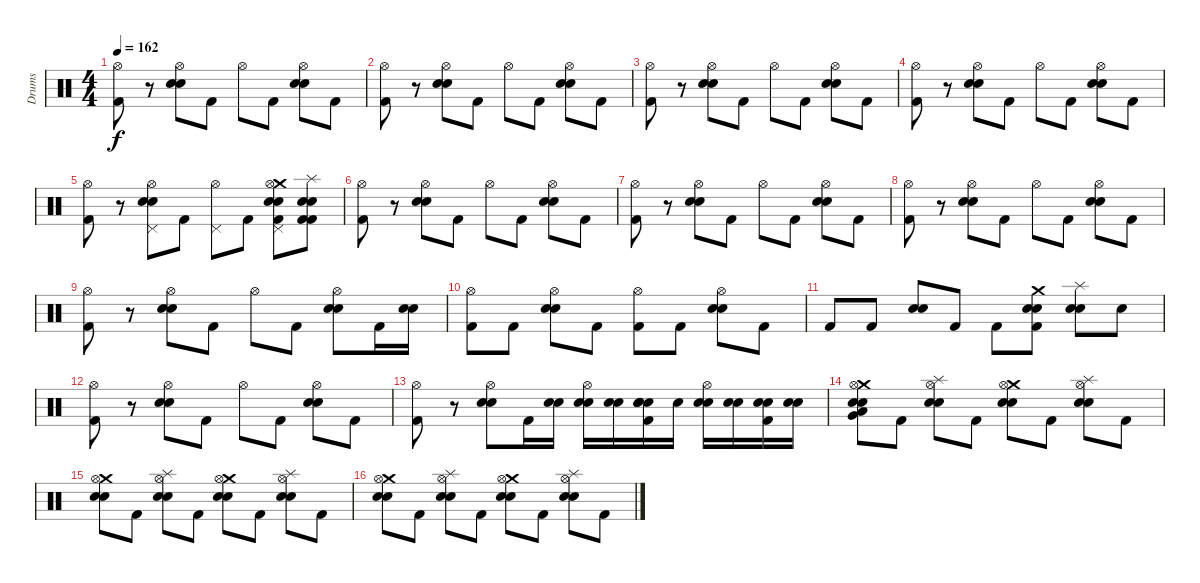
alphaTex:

\track ("Drums" "Drums") {instrument percussion}
\staff {score}
\articulation defaults
\ts (4 4)
\tempo 162
\clef neutral
\ks c
("Hi-Hat (open)" "Kick (hit) 2").8{dy f} r.8 ("Hi-Hat (open)" "Electric Snare (hit)" "Snare (hit) 2").8 "Kick (hit) 2".8 "Hi-Hat (open)".8 "Kick (hit) 2".8 ("Hi-Hat (open)" "Electric Snare (hit)" "Snare (hit) 2").8 "Kick (hit) 2".8 |
("Hi-Hat (open)" "Kick (hit) 2").8 r.8 ("Hi-Hat (open)" "Electric Snare (hit)" "Snare (hit) 2").8 "Kick (hit) 2".8 "Hi-Hat (open)".8 "Kick (hit) 2".8 ("Hi-Hat (open)" "Electric Snare (hit)" "Snare (hit) 2").8 "Kick (hit) 2".8 |
("Hi-Hat (open)" "Kick (hit) 2").8 r.8 ("Hi-Hat (open)" "Electric Snare (hit)" "Snare (hit) 2").8 "Kick (hit) 2".8 "Hi-Hat (open)".8 "Kick (hit) 2".8 ("Hi-Hat (open)" "Electric Snare (hit)" "Snare (hit) 2").8 "Kick (hit) 2".8 |
("Hi-Hat (open)" "Kick (hit) 2").8 r.8 ("Hi-Hat (open)" "Electric Snare (hit)" "Snare (hit) 2").8 "Kick (hit) 2".8 "Hi-Hat (open)".8 "Kick (hit) 2".8 ("Hi-Hat (open)" "Electric Snare (hit)" "Snare (hit) 2").8 "Kick (hit) 2".8 |
("Hi-Hat (open)" "Kick (hit) 2").8 r.8 ("Pedal Hi-Hat (hit)" "Hi-Hat (open)" "Electric Snare (hit)" "Snare (hit) 2").8 "Kick (hit) 2".8 ("Pedal Hi-Hat (hit)" "Hi-Hat (open)").8 "Kick (hit) 2".8 ("Pedal Hi-Hat (hit)" "Electric Snare (hit)" "Snare (hit) 2" "Kick (hit) 2" "Crash medium (hit)" "Hi-Hat (open)").8 ("Electric Snare (hit)" "Snare (hit) 2" "Kick (hit) 2" "Splash (hit)" "Kick (hit) 2").8 |
("Hi-Hat (open)" "Kick (hit) 2").8 r.8 ("Hi-Hat (open)" "Electric Snare (hit)" "Snare (hit) 2").8 "Kick (hit) 2".8 "Hi-Hat (open)".8 "Kick (hit) 2".8 ("Hi-Hat (open)" "Electric Snare (hit)" "Snare (hit) 2").8 "Kick (hit) 2".8 |
("Hi-Hat (open)" "Kick (hit) 2").8 r.8 ("Hi-Hat (open)" "Electric Snare (hit)" "Snare (hit) 2").8 "Kick (hit) 2".8 "Hi-Hat (open)".8 "Kick (hit) 2".8 ("Hi-Hat (open)" "Electric Snare (hit)" "Snare (hit) 2").8 "Kick (hit) 2".8 |
("Hi-Hat (open)" "Kick (hit) 2").8 r.8 ("Hi-Hat (open)" "Electric Snare (hit)" "Snare (hit) 2").8 "Kick (hit) 2".8 "Hi-Hat (open)".8 "Kick (hit) 2".8 ("Hi-Hat (open)" "Electric Snare (hit)" "Snare (hit) 2").8 "Kick (hit) 2".8 |
("Hi-Hat (open)" "Kick (hit) 2").8 r.8 ("Hi-Hat (open)" "Electric Snare (hit)" "Snare (hit) 2").8 "Kick (hit) 2".8 "Hi-Hat (open)".8 "Kick (hit) 2".8 ("Hi-Hat (open)" "Electric Snare (hit)" "Snare (hit) 2").8 "Kick (hit) 2".16 ("Electric Snare (hit)" "Snare (hit) 2").16 |
("Kick (hit) 2" "Hi-Hat (open)").8 "Kick (hit) 2".8 ("Snare (hit) 2" "Electric Snare (hit)" "Hi-Hat (open)").8 "Kick (hit) 2".8 ("Kick (hit) 2" "Hi-Hat (open)").8 "Kick (hit) 2".8 ("Electric Snare (hit)" "Snare (hit) 2" "Hi-Hat (open)").8 "Kick (hit) 2".8 |
"Kick (hit) 2".8 "Kick (hit) 2".8 ("Electric Snare (hit)" "Snare (hit) 2").8 "Kick (hit) 2".8 "Kick (hit) 2".8 ("Electric Snare (hit)" "Snare (hit) 2" "Crash medium (hit)" "Kick (hit) 2").8 ("Splash (hit)" "Electric Snare (hit)" "Snare (hit) 2").8 "Snare (hit) 2".8 |
("Hi-Hat (open)" "Kick (hit) 2").8 r.8 ("Hi-Hat (open)" "Electric Snare (hit)" "Snare (hit) 2").8 "Kick (hit) 2".8 "Hi-Hat (open)".8 "Kick (hit) 2".8 ("Hi-Hat (open)" "Electric Snare (hit)" "Snare (hit) 2").8 "Kick (hit) 2".8 |
("Hi-Hat (open)" "Kick (hit) 2").8 r.8 ("Hi-Hat (open)" "Electric Snare (hit)" "Snare (hit) 2").8 "Kick (hit) 2".16 ("Electric Snare (hit)" "Snare (hit) 2").16 ("Hi-Hat (open)" "Electric Snare (hit)" "Snare (hit) 2").16 ("Electric Snare (hit)" "Snare (hit) 2").16 ("Kick (hit) 2" "Snare (hit) 2" "Electric Snare (hit)" "Snare (hit) 2" "Electric Snare (hit)").16 "Electric Snare (hit)".16 ("Hi-Hat (open)" "Electric Snare (hit)" "Snare (hit) 2").16 ("Electric Snare (hit)" "Snare (hit) 2").16 ("Kick (hit) 2" "Electric Snare (hit)" "Snare (hit) 2").16 ("Electric Snare (hit)" "Snare (hit) 2").16 |
("Crash medium (hit)" "Hi-Hat (open)" "Very Low Tom (hit)" "Low Tom (hit)" "Electric Snare (hit)" "Snare (hit) 2").8 "Kick (hit) 2".8 ("Splash (hit)" "Hi-Hat (open)" "Electric Snare (hit)" "Snare (hit) 2").8 "Kick (hit) 2".8 ("Crash medium (hit)" "Hi-Hat (open)" "Electric Snare (hit)" "Snare (hit) 2").8 "Kick (hit) 2".8 ("Splash (hit)" "Hi-Hat (open)" "Electric Snare (hit)" "Snare (hit) 2").8 "Kick (hit) 2".8 |
("Crash medium (hit)" "Hi-Hat (open)" "Electric Snare (hit)" "Snare (hit) 2").8 "Kick (hit) 2".8 ("Splash (hit)" "Hi-Hat (open)" "Electric Snare (hit)" "Snare (hit) 2").8 "Kick (hit) 2".8 ("Crash medium (hit)" "Hi-Hat (open)" "Electric Snare (hit)" "Snare (hit) 2").8 "Kick (hit) 2".8 ("Splash (hit)" "Hi-Hat (open)" "Electric Snare (hit)" "Snare (hit) 2").8 "Kick (hit) 2".8 |
("Crash medium (hit)" "Hi-Hat (open)" "Electric Snare (hit)" "Snare (hit) 2").8 "Kick (hit) 2".8 ("Splash (hit)" "Hi-Hat (open)" "Electric Snare (hit)" "Snare (hit) 2").8 "Kick (hit) 2".8 ("Crash medium (hit)" "Hi-Hat (open)" "Electric Snare (hit)" "Snare (hit) 2").8 "Kick (hit) 2".8 ("Splash (hit)" "Hi-Hat (open)" "Electric Snare (hit)" "Snare (hit) 2").8 "Kick (hit) 2".8
